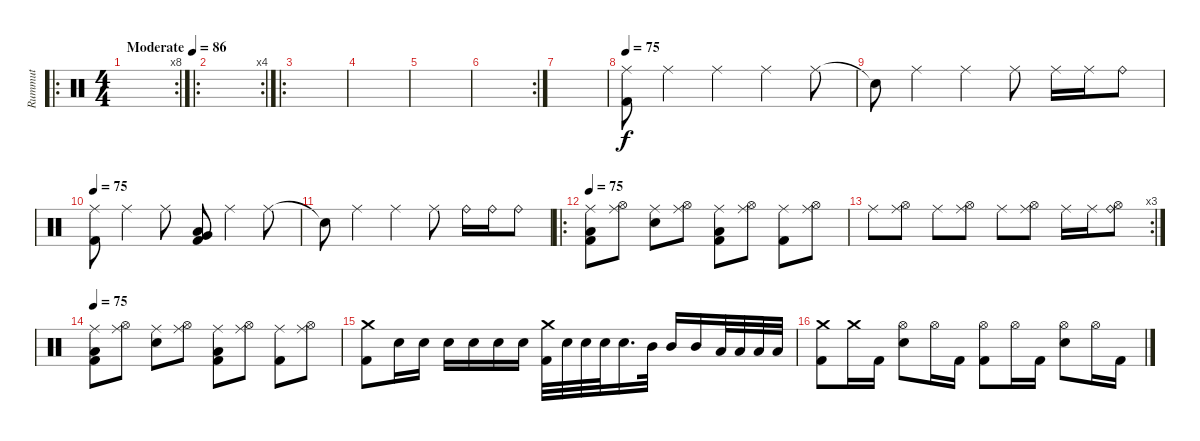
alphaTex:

\track ("Rummut" "Rummut") {instrument percussion}
\staff {score}
\articulation defaults
\ro
\rc 8
\ts (4 4)
\tempo (86 "Moderate")
\clef neutral
\ks c
|
\ro
\rc 4
|
\ro
|
|
|
\rc 2
|
|
\tempo 75
("Ride (middle)" "Kick (hit) 2").8 "Ride (middle)".4 "Ride (middle)".4 "Ride (middle)".4 "Ride (middle)".8 |
"Snare (hit)"{t}.8 "Ride (middle)".4 "Ride (middle)".4 "Ride (middle)".8 "Ride (middle)".16 "Ride (middle)".16 "Ride (bell)".8 |
\tempo 75
("Ride (middle)" "Kick (hit) 2").8 "Ride (middle)".4 "Ride (middle)".8 ("Very Low Tom (hit)" "Low Floor Tom (hit)" "Kick (hit) 2").8 "Ride (middle)".4 "Ride (middle)".8 |
"Snare (hit)"{t}.8 "Ride (middle)".4 "Ride (middle)".4 "Ride (middle)".8 "Ride (bell)".16 "Ride (bell)".16 "Ride (bell)".8 |
\ro
\tempo 75
("Ride (middle)" "Low Floor Tom (hit)" "Kick (hit) 2").8 ("Ride (middle)" "Hi-Hat (open)").8 ("Ride (middle)" "Snare (hit) 2").8 ("Ride (middle)" "Hi-Hat (open)").8 ("Ride (middle)" "Low Floor Tom (hit)" "Kick (hit) 2").8 ("Ride (middle)" "Hi-Hat (open)").8 ("Ride (middle)" "Kick (hit) 2").8 ("Ride (middle)" "Hi-Hat (open)").8 |
\rc 3 "Ride (middle)".8
("Ride (middle)" "Hi-Hat (open)").8 "Ride (middle)".8 ("Ride (middle)" "Hi-Hat (open)").8 "Ride (middle)".8 ("Ride (middle)" "Hi-Hat (open)").8 "Ride (middle)".16 "Ride (middle)".16 ("Ride (bell)" "Hi-Hat (open)").8 |
\tempo 75
("Ride (middle)" "Low Floor Tom (hit)" "Kick (hit) 2").8 ("Ride (middle)" "Hi-Hat (open)").8 ("Ride (middle)" "Snare (hit) 2").8 ("Ride (middle)" "Hi-Hat (open)").8 ("Ride (middle)" "Low Floor Tom (hit)" "Kick (hit) 2").8 ("Ride (middle)" "Hi-Hat (open)").8 ("Ride (middle)" "Kick (hit) 2").8 ("Ride (middle)" "Hi-Hat (open)").8 |
("Crash medium (hit)" "Kick (hit) 2").8 "Snare (hit) 2".16 "Snare (hit) 2".16 "Snare (hit) 2".16 "Snare (hit) 2".16 "Snare (hit) 2".16 "Snare (hit) 2".16 ("Crash medium (hit)" "Kick (hit) 2").32 "Snare (hit) 2".32 "Snare (hit) 2".32 "Snare (hit) 2".32 "Snare (hit) 2".16{d} "Mid Tom (hit)".32 "Mid Tom (hit)".16 "Mid Tom (hit)".16 "Low Tom (hit)".32 "Low Tom (hit)".32 "Low Tom (hit)".32 "Low Tom (hit)".32 |
("Crash medium (hit)" "Kick (hit) 2").8 "Crash medium (hit)".16 "Kick (hit) 2".16 ("Hi-Hat (open)" "Snare (hit) 2").8 "Hi-Hat (open)".16 "Kick (hit) 2".16 ("Hi-Hat (open)" "Kick (hit) 2").8 "Hi-Hat (open)".16 "Kick (hit) 2".16 ("Hi-Hat (open)" "Snare (hit) 2").8 "Hi-Hat (open)".16 "Kick (hit) 2".16
